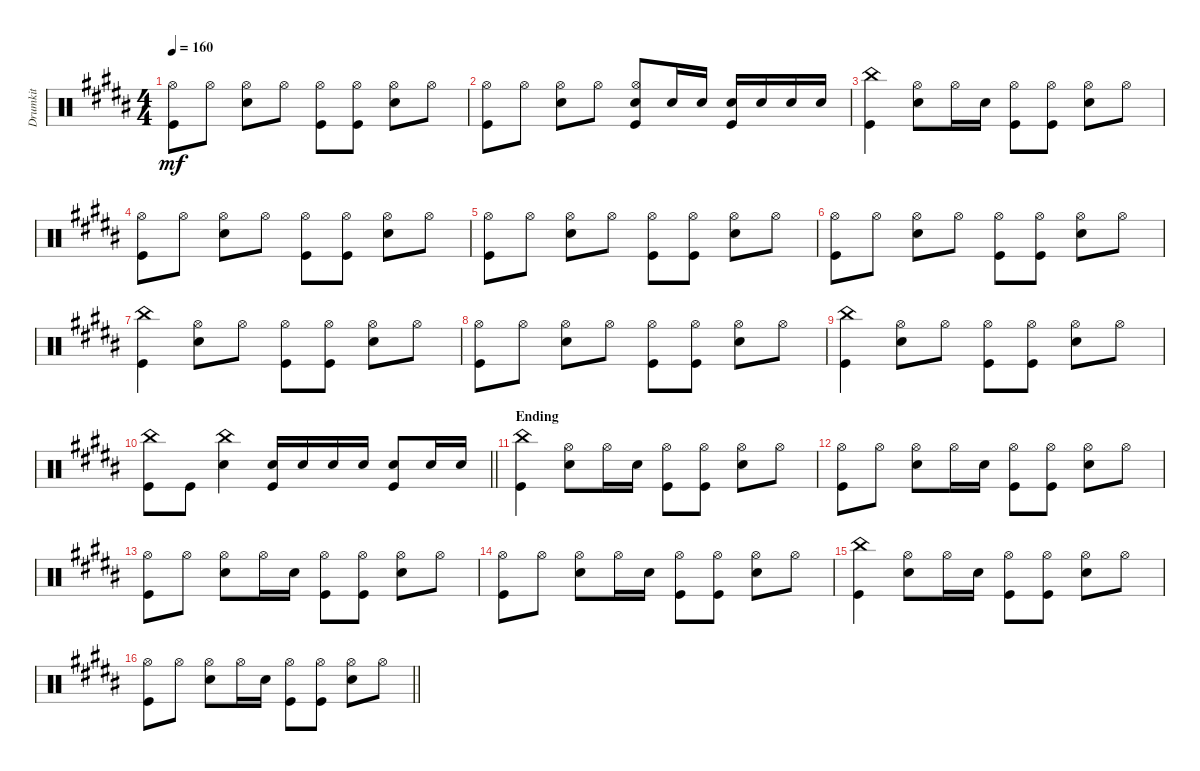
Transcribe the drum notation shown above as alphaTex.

\track ("Drumkit" "Drumkit") {instrument percussion}
\staff {score}
\articulation defaults
\ts (4 4)
\tempo 160
\clef neutral
\ks b
("Kick (hit)" "Hi-Hat (open)").8{dy mf} "Hi-Hat (open)".8 ("Hi-Hat (open)" "Snare (hit) 2").8 "Hi-Hat (open)".8 ("Hi-Hat (open)" "Kick (hit)").8 ("Hi-Hat (open)" "Kick (hit)").8 ("Hi-Hat (open)" "Snare (hit) 2").8 "Hi-Hat (open)".8 |
("Hi-Hat (open)" "Kick (hit)").8 "Hi-Hat (open)".8 ("Hi-Hat (open)" "Snare (hit) 2").8 "Hi-Hat (open)".8 ("Hi-Hat (open)" "Snare (hit) 2" "Kick (hit)").8 "Snare (hit) 2".16 "Snare (hit) 2".16 ("Snare (hit) 2" "Kick (hit)").16 "Snare (hit) 2".16 "Snare (hit) 2".16 "Snare (hit) 2".16 |
("Kick (hit)" "China (hit)").4 ("Hi-Hat (open)" "Snare (hit) 2").8 "Hi-Hat (open)".16 "Snare (hit) 2".16 ("Hi-Hat (open)" "Kick (hit)").8 ("Hi-Hat (open)" "Kick (hit)").8 ("Hi-Hat (open)" "Snare (hit) 2").8 "Hi-Hat (open)".8 |
("Hi-Hat (open)" "Kick (hit)").8 "Hi-Hat (open)".8 ("Hi-Hat (open)" "Snare (hit) 2").8 "Hi-Hat (open)".8 ("Hi-Hat (open)" "Kick (hit)").8 ("Hi-Hat (open)" "Kick (hit)").8 ("Hi-Hat (open)" "Snare (hit) 2").8 "Hi-Hat (open)".8 |
("Hi-Hat (open)" "Kick (hit)").8 "Hi-Hat (open)".8 ("Hi-Hat (open)" "Snare (hit) 2").8 "Hi-Hat (open)".8 ("Hi-Hat (open)" "Kick (hit)").8 ("Hi-Hat (open)" "Kick (hit)").8 ("Hi-Hat (open)" "Snare (hit) 2").8 "Hi-Hat (open)".8 |
("Hi-Hat (open)" "Kick (hit)").8 "Hi-Hat (open)".8 ("Hi-Hat (open)" "Snare (hit) 2").8 "Hi-Hat (open)".8 ("Hi-Hat (open)" "Kick (hit)").8 ("Hi-Hat (open)" "Kick (hit)").8 ("Hi-Hat (open)" "Snare (hit) 2").8 "Hi-Hat (open)".8 |
("Kick (hit)" "China (hit)").4 ("Hi-Hat (open)" "Snare (hit) 2").8 "Hi-Hat (open)".8 ("Hi-Hat (open)" "Kick (hit)").8 ("Hi-Hat (open)" "Kick (hit)").8 ("Hi-Hat (open)" "Snare (hit) 2").8 "Hi-Hat (open)".8 |
("Hi-Hat (open)" "Kick (hit)").8 "Hi-Hat (open)".8 ("Hi-Hat (open)" "Snare (hit) 2").8 "Hi-Hat (open)".8 ("Hi-Hat (open)" "Kick (hit)").8 ("Hi-Hat (open)" "Kick (hit)").8 ("Hi-Hat (open)" "Snare (hit) 2").8 "Hi-Hat (open)".8 |
("Kick (hit)" "China (hit)").4 ("Hi-Hat (open)" "Snare (hit) 2").8 "Hi-Hat (open)".8 ("Hi-Hat (open)" "Kick (hit)").8 ("Hi-Hat (open)" "Kick (hit)").8 ("Hi-Hat (open)" "Snare (hit) 2").8 "Hi-Hat (open)".8 |
\barLineRight lightlight
("Kick (hit)" "China (hit)").8 "Kick (hit)".8 ("China (hit)" "Snare (hit) 2").4 ("Snare (hit) 2" "Kick (hit)").16 "Snare (hit) 2".16 "Snare (hit) 2".16 "Snare (hit) 2".16 ("Kick (hit)" "Snare (hit) 2").8 "Snare (hit) 2".16 "Snare (hit) 2".16 |
\section ("" "Ending")
("Kick (hit)" "China (hit)").4 ("Hi-Hat (open)" "Snare (hit) 2").8 "Hi-Hat (open)".16 "Snare (hit) 2".16 ("Hi-Hat (open)" "Kick (hit)").8 ("Hi-Hat (open)" "Kick (hit)").8 ("Hi-Hat (open)" "Snare (hit) 2").8 "Hi-Hat (open)".8 |
("Hi-Hat (open)" "Kick (hit)").8 "Hi-Hat (open)".8 ("Hi-Hat (open)" "Snare (hit) 2").8 "Hi-Hat (open)".16 "Snare (hit) 2".16 ("Hi-Hat (open)" "Kick (hit)").8 ("Hi-Hat (open)" "Kick (hit)").8 ("Hi-Hat (open)" "Snare (hit) 2").8 "Hi-Hat (open)".8 |
("Hi-Hat (open)" "Kick (hit)").8 "Hi-Hat (open)".8 ("Hi-Hat (open)" "Snare (hit) 2").8 "Hi-Hat (open)".16 "Snare (hit) 2".16 ("Hi-Hat (open)" "Kick (hit)").8 ("Hi-Hat (open)" "Kick (hit)").8 ("Hi-Hat (open)" "Snare (hit) 2").8 "Hi-Hat (open)".8 |
("Hi-Hat (open)" "Kick (hit)").8 "Hi-Hat (open)".8 ("Hi-Hat (open)" "Snare (hit) 2").8 "Hi-Hat (open)".16 "Snare (hit) 2".16 ("Hi-Hat (open)" "Kick (hit)").8 ("Hi-Hat (open)" "Kick (hit)").8 ("Hi-Hat (open)" "Snare (hit) 2").8 "Hi-Hat (open)".8 |
("Kick (hit)" "China (hit)").4 ("Hi-Hat (open)" "Snare (hit) 2").8 "Hi-Hat (open)".16 "Snare (hit) 2".16 ("Hi-Hat (open)" "Kick (hit)").8 ("Hi-Hat (open)" "Kick (hit)").8 ("Hi-Hat (open)" "Snare (hit) 2").8 "Hi-Hat (open)".8 |
\barLineRight lightlight
("Kick (hit)" "Hi-Hat (open)").8 "Hi-Hat (open)".8 ("Hi-Hat (open)" "Snare (hit) 2").8 "Hi-Hat (open)".16 "Snare (hit) 2".16 ("Hi-Hat (open)" "Kick (hit)").8 ("Hi-Hat (open)" "Kick (hit)").8 ("Hi-Hat (open)" "Snare (hit) 2").8 "Hi-Hat (open)".8
